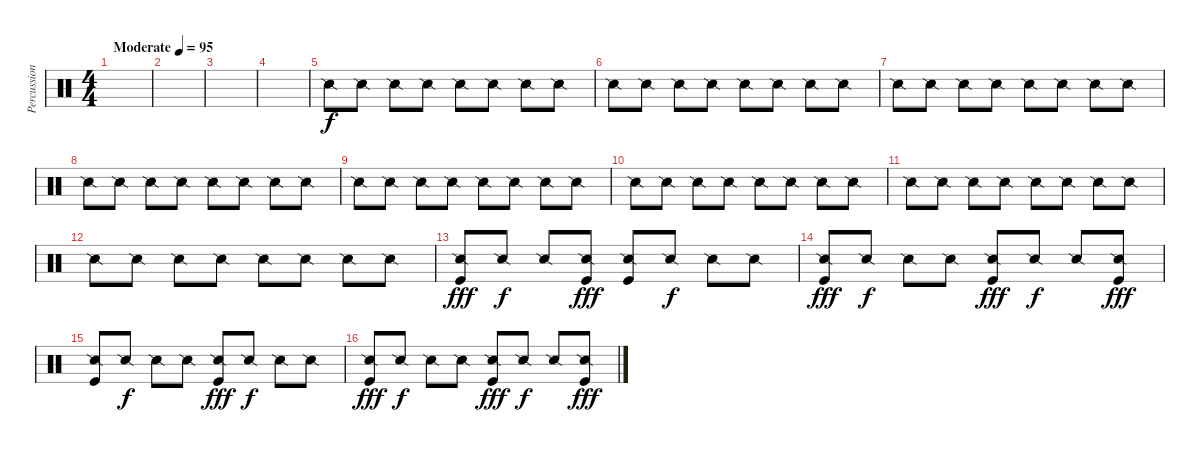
\track ("Percussion" "Percussion") {instrument percussion}
\staff {score}
\articulation defaults
\ts (4 4)
\tempo (95 "Moderate")
\clef neutral
\ks c
|
|
|
|
"Snare (side stick) 2".8 "Snare (side stick) 2".8 "Snare (side stick) 2".8 "Snare (side stick) 2".8 "Snare (side stick) 2".8 "Snare (side stick) 2".8 "Snare (side stick) 2".8 "Snare (side stick) 2".8 |
"Snare (side stick) 2".8 "Snare (side stick) 2".8 "Snare (side stick) 2".8 "Snare (side stick) 2".8 "Snare (side stick) 2".8 "Snare (side stick) 2".8 "Snare (side stick) 2".8 "Snare (side stick) 2".8 |
"Snare (side stick) 2".8 "Snare (side stick) 2".8 "Snare (side stick) 2".8 "Snare (side stick) 2".8 "Snare (side stick) 2".8 "Snare (side stick) 2".8 "Snare (side stick) 2".8 "Snare (side stick) 2".8 |
"Snare (side stick) 2".8 "Snare (side stick) 2".8 "Snare (side stick) 2".8 "Snare (side stick) 2".8 "Snare (side stick) 2".8 "Snare (side stick) 2".8 "Snare (side stick) 2".8 "Snare (side stick) 2".8 |
"Snare (side stick) 2".8 "Snare (side stick) 2".8 "Snare (side stick) 2".8 "Snare (side stick) 2".8 "Snare (side stick) 2".8 "Snare (side stick) 2".8 "Snare (side stick) 2".8 "Snare (side stick) 2".8 |
"Snare (side stick) 2".8 "Snare (side stick) 2".8 "Snare (side stick) 2".8 "Snare (side stick) 2".8 "Snare (side stick) 2".8 "Snare (side stick) 2".8 "Snare (side stick) 2".8 "Snare (side stick) 2".8 |
"Snare (side stick) 2".8 "Snare (side stick) 2".8 "Snare (side stick) 2".8 "Snare (side stick) 2".8 "Snare (side stick) 2".8 "Snare (side stick) 2".8 "Snare (side stick) 2".8 "Snare (side stick) 2".8 |
"Snare (side stick) 2".8 "Snare (side stick) 2".8 "Snare (side stick) 2".8 "Snare (side stick) 2".8 "Snare (side stick) 2".8 "Snare (side stick) 2".8 "Snare (side stick) 2".8 "Snare (side stick) 2".8 |
("Snare (side stick) 2" "Kick (hit)").8{dy fff} "Snare (side stick) 2".8{dy f} "Snare (side stick) 2".8 ("Snare (side stick) 2" "Kick (hit)").8{dy fff} ("Snare (side stick) 2" "Kick (hit)").8 "Snare (side stick) 2".8{dy f} "Snare (side stick) 2".8 "Snare (side stick) 2".8 |
("Snare (side stick) 2" "Kick (hit)").8{dy fff} "Snare (side stick) 2".8{dy f} "Snare (side stick) 2".8 "Snare (side stick) 2".8 ("Snare (side stick) 2" "Kick (hit)").8{dy fff} "Snare (side stick) 2".8{dy f} "Snare (side stick) 2".8 ("Snare (side stick) 2" "Kick (hit)").8{dy fff} |
("Snare (side stick) 2" "Kick (hit)").8 "Snare (side stick) 2".8{dy f} "Snare (side stick) 2".8 "Snare (side stick) 2".8 ("Snare (side stick) 2" "Kick (hit)").8{dy fff} "Snare (side stick) 2".8{dy f} "Snare (side stick) 2".8 "Snare (side stick) 2".8 |
("Snare (side stick) 2" "Kick (hit)").8{dy fff} "Snare (side stick) 2".8{dy f} "Snare (side stick) 2".8 "Snare (side stick) 2".8 ("Snare (side stick) 2" "Kick (hit)").8{dy fff} "Snare (side stick) 2".8{dy f} "Snare (side stick) 2".8 ("Snare (side stick) 2" "Kick (hit)").8{dy fff}
